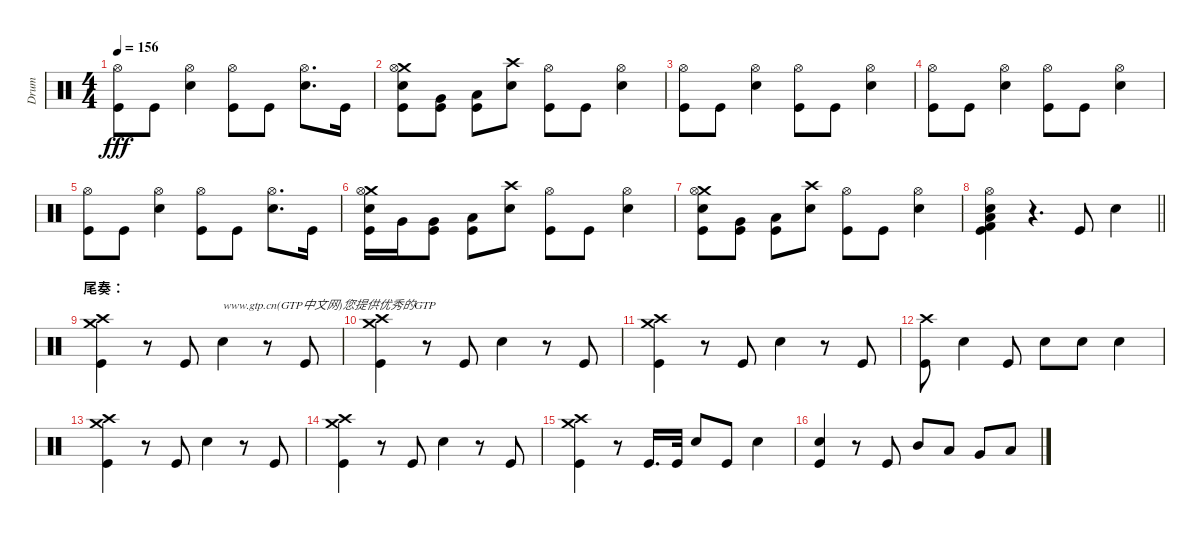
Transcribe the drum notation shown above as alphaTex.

\track ("Drum" "Drum") {instrument percussion}
\staff {score}
\articulation defaults
\ts (4 4)
\tempo 156
\clef neutral
\ks c
("Hi-Hat (open)" "Kick (hit)").8{dy fff} "Kick (hit)".8 ("Hi-Hat (open)" "Metronome (bell)").4 ("Hi-Hat (open)" "Kick (hit)").8 "Kick (hit)".8 ("Metronome (bell)" "Hi-Hat (open)").8{d} "Kick (hit)".16 |
("Crash medium (hit)" "Metronome (bell)" "Kick (hit)" "Hi-Hat (open)").8 ("Very Low Tom (hit)" "Kick (hit)").8 ("Low Floor Tom (hit)" "Kick (hit)").8 ("Metronome (bell)" "Crash high (hit)").8 ("Kick (hit)" "Hi-Hat (open)").8 "Kick (hit)".8 ("Hi-Hat (open)" "Metronome (bell)").4 |
("Hi-Hat (open)" "Kick (hit)").8 "Kick (hit)".8 ("Metronome (bell)" "Hi-Hat (open)").4 ("Kick (hit)" "Hi-Hat (open)").8 "Kick (hit)".8 ("Hi-Hat (open)" "Metronome (bell)").4 |
("Hi-Hat (open)" "Kick (hit)").8 "Kick (hit)".8 ("Hi-Hat (open)" "Metronome (bell)").4 ("Hi-Hat (open)" "Kick (hit)").8 "Kick (hit)".8 ("Hi-Hat (open)" "Metronome (bell)").4 |
("Hi-Hat (open)" "Kick (hit)").8 "Kick (hit)".8 ("Hi-Hat (open)" "Metronome (bell)").4 ("Hi-Hat (open)" "Kick (hit)").8 "Kick (hit)".8 ("Metronome (bell)" "Hi-Hat (open)").8{d} "Kick (hit)".16 |
("Crash medium (hit)" "Metronome (bell)" "Kick (hit)" "Hi-Hat (open)").16 "Very Low Tom (hit)".16 ("Very Low Tom (hit)" "Kick (hit)").8 ("Low Floor Tom (hit)" "Kick (hit)").8 ("Metronome (bell)" "Crash high (hit)").8 ("Kick (hit)" "Hi-Hat (open)").8 "Kick (hit)".8 ("Hi-Hat (open)" "Metronome (bell)").4 |
("Crash medium (hit)" "Metronome (bell)" "Kick (hit)" "Hi-Hat (open)").8 ("Very Low Tom (hit)" "Kick (hit)").8 ("Low Floor Tom (hit)" "Kick (hit)").8 ("Metronome (bell)" "Crash high (hit)").8 ("Kick (hit)" "Hi-Hat (open)").8 "Kick (hit)".8 ("Hi-Hat (open)" "Metronome (bell)").4 |
\barLineRight lightlight
("Metronome (bell)" "Kick (hit) 2" "Kick (hit)" "Hi-Hat (open)" "Low Floor Tom (hit)").4 r.4{d} "Kick (hit)".8 "Metronome (bell)".4 |
\section ("" "尾奏：")
("Crash medium (hit)" "Crash high (hit)" "Kick (hit)").4 r.8 "Kick (hit)".8 "Metronome (bell)".4{txt "www.gtp.cn(GTP中文网)您提供优秀的GTP"} r.8 "Kick (hit)".8 |
("Kick (hit)" "Crash high (hit)" "Crash medium (hit)").4 r.8 "Kick (hit)".8 "Metronome (bell)".4 r.8 "Kick (hit)".8 |
("Crash high (hit)" "Kick (hit)" "Crash medium (hit)").4 r.8 "Kick (hit)".8 "Metronome (bell)".4 r.8 "Kick (hit)".8 |
("Crash high (hit)" "Kick (hit)").8 "Metronome (bell)".4 "Kick (hit)".8 "Metronome (bell)".8 "Metronome (bell)".8 "Metronome (bell)".4 |
("Crash medium (hit)" "Crash high (hit)" "Kick (hit)").4 r.8 "Kick (hit)".8 "Metronome (bell)".4 r.8 "Kick (hit)".8 |
("Kick (hit)" "Crash high (hit)" "Crash medium (hit)").4 r.8 "Kick (hit)".8 "Metronome (bell)".4 r.8 "Kick (hit)".8 |
("Crash high (hit)" "Kick (hit)" "Crash medium (hit)").4 r.8 "Kick (hit)".16{d} "Kick (hit)".32 "Metronome (bell)".8 "Kick (hit)".8 "Metronome (bell)".4 |
("Metronome (bell)" "Kick (hit)").4 r.8 "Kick (hit)".8 "Mid Tom (hit)".8 "Low Tom (hit)".8 "Very Low Tom (hit)".8 "Low Floor Tom (hit)".8
